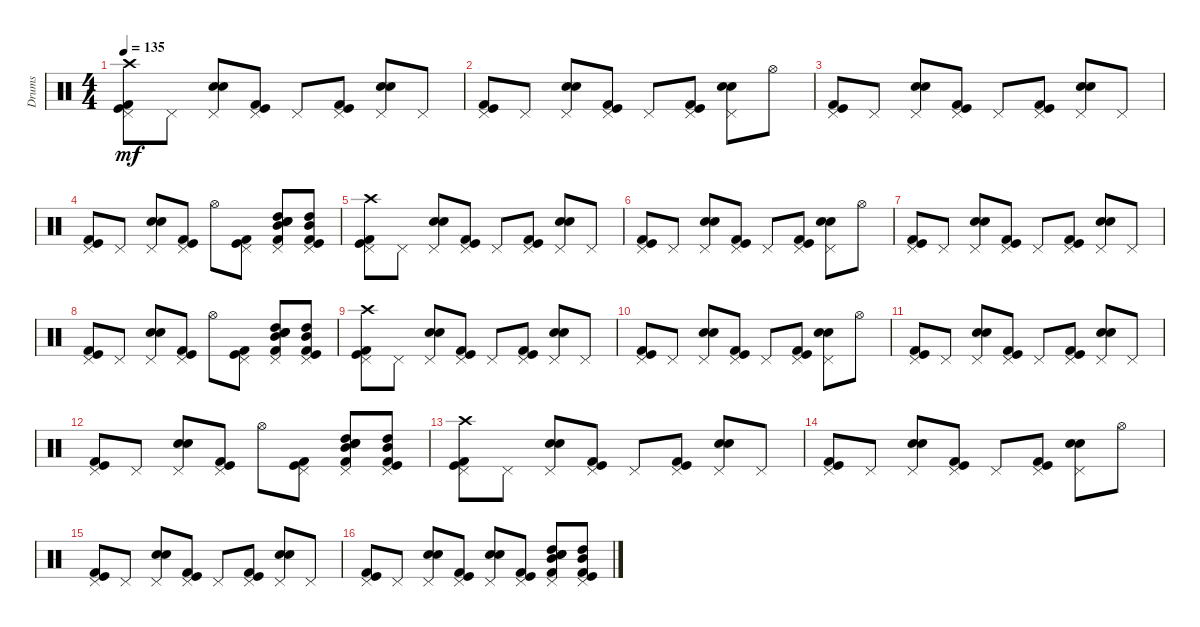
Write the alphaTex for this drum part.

\track ("Drums" "Drums") {instrument percussion}
\staff {score}
\articulation defaults
\ts (4 4)
\tempo 135
\clef neutral
\ks c
("Kick (hit)" "Pedal Hi-Hat (hit)" "Kick (hit) 2" "Crash high (hit)").8{dy mf} "Pedal Hi-Hat (hit)".8 ("Pedal Hi-Hat (hit)" "Electric Snare (hit)" "Snare (hit) 2").8 ("Pedal Hi-Hat (hit)" "Kick (hit) 2" "Kick (hit)").8 "Pedal Hi-Hat (hit)".8 ("Kick (hit)" "Pedal Hi-Hat (hit)" "Kick (hit) 2").8 ("Snare (hit) 2" "Pedal Hi-Hat (hit)" "Electric Snare (hit)").8 "Pedal Hi-Hat (hit)".8 |
("Kick (hit) 2" "Kick (hit)" "Pedal Hi-Hat (hit)").8 "Pedal Hi-Hat (hit)".8 ("Pedal Hi-Hat (hit)" "Snare (hit) 2" "Electric Snare (hit)").8 ("Kick (hit) 2" "Kick (hit)" "Pedal Hi-Hat (hit)").8 "Pedal Hi-Hat (hit)".8 ("Kick (hit) 2" "Kick (hit)" "Pedal Hi-Hat (hit)").8 ("Snare (hit) 2" "Pedal Hi-Hat (hit)" "Electric Snare (hit)").8 "Hi-Hat (open)".8 |
("Kick (hit) 2" "Kick (hit)" "Pedal Hi-Hat (hit)").8 "Pedal Hi-Hat (hit)".8 ("Electric Snare (hit)" "Snare (hit) 2" "Pedal Hi-Hat (hit)").8 ("Kick (hit) 2" "Kick (hit)" "Pedal Hi-Hat (hit)").8 "Pedal Hi-Hat (hit)".8 ("Kick (hit) 2" "Kick (hit)" "Pedal Hi-Hat (hit)").8 ("Electric Snare (hit)" "Snare (hit) 2" "Pedal Hi-Hat (hit)").8 "Pedal Hi-Hat (hit)".8 |
("Kick (hit)" "Kick (hit) 2" "Pedal Hi-Hat (hit)").8 "Pedal Hi-Hat (hit)".8 ("Snare (hit) 2" "Electric Snare (hit)" "Pedal Hi-Hat (hit)").8 ("Pedal Hi-Hat (hit)" "Kick (hit) 2" "Kick (hit)").8 "Hi-Hat (open)".8 ("Kick (hit) 2" "Kick (hit)" "Pedal Hi-Hat (hit)").8 ("High Tom (hit)" "Mid Tom (hit)" "Kick (hit) 2" "Pedal Hi-Hat (hit)" "Electric Snare (hit)" "Snare (hit) 2").8 ("High Tom (hit)" "Mid Tom (hit)" "Kick (hit)" "Pedal Hi-Hat (hit)" "Kick (hit) 2").8 |
("Crash high (hit)" "Kick (hit) 2" "Pedal Hi-Hat (hit)" "Kick (hit)").8 "Pedal Hi-Hat (hit)".8 ("Snare (hit) 2" "Electric Snare (hit)" "Pedal Hi-Hat (hit)").8 ("Kick (hit)" "Kick (hit) 2" "Pedal Hi-Hat (hit)").8 "Pedal Hi-Hat (hit)".8 ("Kick (hit) 2" "Pedal Hi-Hat (hit)" "Kick (hit)").8 ("Electric Snare (hit)" "Pedal Hi-Hat (hit)" "Snare (hit) 2").8 "Pedal Hi-Hat (hit)".8 |
("Pedal Hi-Hat (hit)" "Kick (hit)" "Kick (hit) 2").8 "Pedal Hi-Hat (hit)".8 ("Electric Snare (hit)" "Snare (hit) 2" "Pedal Hi-Hat (hit)").8 ("Pedal Hi-Hat (hit)" "Kick (hit)" "Kick (hit) 2").8 "Pedal Hi-Hat (hit)".8 ("Pedal Hi-Hat (hit)" "Kick (hit)" "Kick (hit) 2").8 ("Electric Snare (hit)" "Pedal Hi-Hat (hit)" "Snare (hit) 2").8 "Hi-Hat (open)".8 |
("Pedal Hi-Hat (hit)" "Kick (hit)" "Kick (hit) 2").8 "Pedal Hi-Hat (hit)".8 ("Pedal Hi-Hat (hit)" "Snare (hit) 2" "Electric Snare (hit)").8 ("Pedal Hi-Hat (hit)" "Kick (hit)" "Kick (hit) 2").8 "Pedal Hi-Hat (hit)".8 ("Pedal Hi-Hat (hit)" "Kick (hit)" "Kick (hit) 2").8 ("Pedal Hi-Hat (hit)" "Snare (hit) 2" "Electric Snare (hit)").8 "Pedal Hi-Hat (hit)".8 |
("Pedal Hi-Hat (hit)" "Kick (hit) 2" "Kick (hit)").8 "Pedal Hi-Hat (hit)".8 ("Pedal Hi-Hat (hit)" "Electric Snare (hit)" "Snare (hit) 2").8 ("Kick (hit)" "Kick (hit) 2" "Pedal Hi-Hat (hit)").8 "Hi-Hat (open)".8 ("Pedal Hi-Hat (hit)" "Kick (hit)" "Kick (hit) 2").8 ("Snare (hit) 2" "Electric Snare (hit)" "Pedal Hi-Hat (hit)" "Kick (hit) 2" "Mid Tom (hit)" "High Tom (hit)").8 ("Kick (hit) 2" "Pedal Hi-Hat (hit)" "Kick (hit)" "Mid Tom (hit)" "High Tom (hit)").8 |
("Crash high (hit)" "Kick (hit) 2" "Pedal Hi-Hat (hit)" "Kick (hit)").8 "Pedal Hi-Hat (hit)".8 ("Snare (hit) 2" "Electric Snare (hit)" "Pedal Hi-Hat (hit)").8 ("Kick (hit)" "Kick (hit) 2" "Pedal Hi-Hat (hit)").8 "Pedal Hi-Hat (hit)".8 ("Kick (hit) 2" "Pedal Hi-Hat (hit)" "Kick (hit)").8 ("Electric Snare (hit)" "Pedal Hi-Hat (hit)" "Snare (hit) 2").8 "Pedal Hi-Hat (hit)".8 |
("Pedal Hi-Hat (hit)" "Kick (hit)" "Kick (hit) 2").8 "Pedal Hi-Hat (hit)".8 ("Electric Snare (hit)" "Snare (hit) 2" "Pedal Hi-Hat (hit)").8 ("Pedal Hi-Hat (hit)" "Kick (hit)" "Kick (hit) 2").8 "Pedal Hi-Hat (hit)".8 ("Pedal Hi-Hat (hit)" "Kick (hit)" "Kick (hit) 2").8 ("Electric Snare (hit)" "Pedal Hi-Hat (hit)" "Snare (hit) 2").8 "Hi-Hat (open)".8 |
("Pedal Hi-Hat (hit)" "Kick (hit)" "Kick (hit) 2").8 "Pedal Hi-Hat (hit)".8 ("Pedal Hi-Hat (hit)" "Snare (hit) 2" "Electric Snare (hit)").8 ("Pedal Hi-Hat (hit)" "Kick (hit)" "Kick (hit) 2").8 "Pedal Hi-Hat (hit)".8 ("Pedal Hi-Hat (hit)" "Kick (hit)" "Kick (hit) 2").8 ("Pedal Hi-Hat (hit)" "Snare (hit) 2" "Electric Snare (hit)").8 "Pedal Hi-Hat (hit)".8 |
("Pedal Hi-Hat (hit)" "Kick (hit) 2" "Kick (hit)").8 "Pedal Hi-Hat (hit)".8 ("Pedal Hi-Hat (hit)" "Electric Snare (hit)" "Snare (hit) 2").8 ("Kick (hit)" "Kick (hit) 2" "Pedal Hi-Hat (hit)").8 "Hi-Hat (open)".8 ("Pedal Hi-Hat (hit)" "Kick (hit)" "Kick (hit) 2").8 ("Snare (hit) 2" "Electric Snare (hit)" "Pedal Hi-Hat (hit)" "Kick (hit) 2" "Mid Tom (hit)" "High Tom (hit)").8 ("Kick (hit) 2" "Pedal Hi-Hat (hit)" "Kick (hit)" "Mid Tom (hit)" "High Tom (hit)").8 |
("Crash high (hit)" "Kick (hit) 2" "Pedal Hi-Hat (hit)" "Kick (hit)").8 "Pedal Hi-Hat (hit)".8 ("Snare (hit) 2" "Electric Snare (hit)" "Pedal Hi-Hat (hit)").8 ("Kick (hit)" "Kick (hit) 2" "Pedal Hi-Hat (hit)").8 "Pedal Hi-Hat (hit)".8 ("Kick (hit) 2" "Pedal Hi-Hat (hit)" "Kick (hit)").8 ("Electric Snare (hit)" "Pedal Hi-Hat (hit)" "Snare (hit) 2").8 "Pedal Hi-Hat (hit)".8 |
("Pedal Hi-Hat (hit)" "Kick (hit)" "Kick (hit) 2").8 "Pedal Hi-Hat (hit)".8 ("Electric Snare (hit)" "Snare (hit) 2" "Pedal Hi-Hat (hit)").8 ("Pedal Hi-Hat (hit)" "Kick (hit)" "Kick (hit) 2").8 "Pedal Hi-Hat (hit)".8 ("Pedal Hi-Hat (hit)" "Kick (hit)" "Kick (hit) 2").8 ("Electric Snare (hit)" "Pedal Hi-Hat (hit)" "Snare (hit) 2").8 "Hi-Hat (open)".8 |
("Pedal Hi-Hat (hit)" "Kick (hit)" "Kick (hit) 2").8 "Pedal Hi-Hat (hit)".8 ("Pedal Hi-Hat (hit)" "Snare (hit) 2" "Electric Snare (hit)").8 ("Pedal Hi-Hat (hit)" "Kick (hit)" "Kick (hit) 2").8 "Pedal Hi-Hat (hit)".8 ("Pedal Hi-Hat (hit)" "Kick (hit)" "Kick (hit) 2").8 ("Pedal Hi-Hat (hit)" "Snare (hit) 2" "Electric Snare (hit)").8 "Pedal Hi-Hat (hit)".8 |
("Pedal Hi-Hat (hit)" "Kick (hit) 2" "Kick (hit)").8 "Pedal Hi-Hat (hit)".8 ("Pedal Hi-Hat (hit)" "Electric Snare (hit)" "Snare (hit) 2").8 ("Kick (hit)" "Kick (hit) 2" "Pedal Hi-Hat (hit)").8 ("Pedal Hi-Hat (hit)" "Snare (hit) 2" "Electric Snare (hit)").8 ("Pedal Hi-Hat (hit)" "Kick (hit)" "Kick (hit) 2").8 ("Snare (hit) 2" "Electric Snare (hit)" "Pedal Hi-Hat (hit)" "Kick (hit) 2" "Mid Tom (hit)" "High Tom (hit)").8 ("Kick (hit) 2" "Pedal Hi-Hat (hit)" "Kick (hit)" "Mid Tom (hit)" "High Tom (hit)").8
